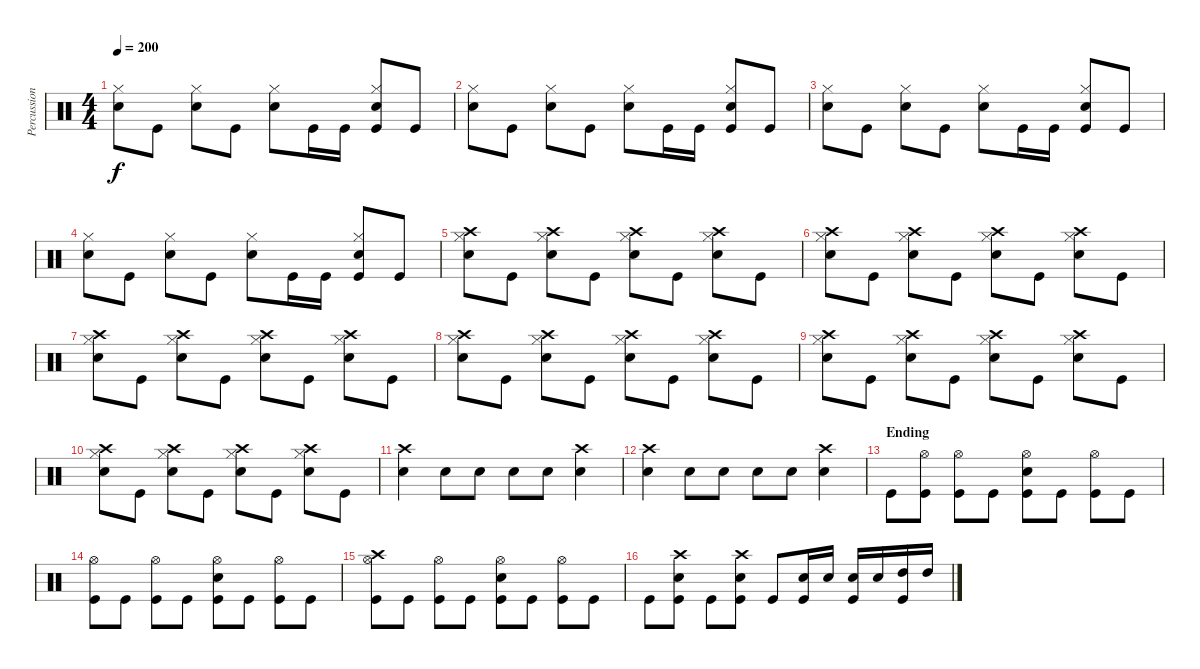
\track ("Percussion" "Percussion") {instrument percussion}
\staff {score}
\articulation defaults
\ts (4 4)
\tempo 200
\clef neutral
\ks c
("Snare (hit) 2" "Hi-Hat (closed)").8{dy f} "Kick (hit)".8 ("Snare (hit) 2" "Hi-Hat (closed)").8 "Kick (hit)".8 ("Snare (hit) 2" "Hi-Hat (closed)").8 "Kick (hit)".16 "Kick (hit)".16 ("Snare (hit) 2" "Hi-Hat (closed)" "Kick (hit)").8 "Kick (hit)".8 |
("Snare (hit) 2" "Hi-Hat (closed)").8 "Kick (hit)".8 ("Snare (hit) 2" "Hi-Hat (closed)").8 "Kick (hit)".8 ("Snare (hit) 2" "Hi-Hat (closed)").8 "Kick (hit)".16 "Kick (hit)".16 ("Snare (hit) 2" "Hi-Hat (closed)" "Kick (hit)").8 "Kick (hit)".8 |
("Snare (hit) 2" "Hi-Hat (closed)").8 "Kick (hit)".8 ("Snare (hit) 2" "Hi-Hat (closed)").8 "Kick (hit)".8 ("Snare (hit) 2" "Hi-Hat (closed)").8 "Kick (hit)".16 "Kick (hit)".16 ("Snare (hit) 2" "Hi-Hat (closed)" "Kick (hit)").8 "Kick (hit)".8 |
("Snare (hit) 2" "Hi-Hat (closed)").8 "Kick (hit)".8 ("Snare (hit) 2" "Hi-Hat (closed)").8 "Kick (hit)".8 ("Snare (hit) 2" "Hi-Hat (closed)").8 "Kick (hit)".16 "Kick (hit)".16 ("Snare (hit) 2" "Hi-Hat (closed)" "Kick (hit)").8 "Kick (hit)".8 |
("Crash high (hit)" "Snare (hit) 2" "Hi-Hat (closed)").8 "Kick (hit)".8 ("Crash high (hit)" "Snare (hit) 2" "Hi-Hat (closed)").8 "Kick (hit)".8 ("Crash high (hit)" "Snare (hit) 2" "Hi-Hat (closed)").8 "Kick (hit)".8 ("Crash high (hit)" "Snare (hit) 2" "Hi-Hat (closed)").8 "Kick (hit)".8 |
("Crash high (hit)" "Snare (hit) 2" "Hi-Hat (closed)").8 "Kick (hit)".8 ("Crash high (hit)" "Snare (hit) 2" "Hi-Hat (closed)").8 "Kick (hit)".8 ("Crash high (hit)" "Snare (hit) 2" "Hi-Hat (closed)").8 "Kick (hit)".8 ("Crash high (hit)" "Snare (hit) 2" "Hi-Hat (closed)").8 "Kick (hit)".8 |
("Crash high (hit)" "Snare (hit) 2" "Hi-Hat (closed)").8 "Kick (hit)".8 ("Crash high (hit)" "Snare (hit) 2" "Hi-Hat (closed)").8 "Kick (hit)".8 ("Crash high (hit)" "Snare (hit) 2" "Hi-Hat (closed)").8 "Kick (hit)".8 ("Crash high (hit)" "Snare (hit) 2" "Hi-Hat (closed)").8 "Kick (hit)".8 |
("Crash high (hit)" "Snare (hit) 2" "Hi-Hat (closed)").8 "Kick (hit)".8 ("Crash high (hit)" "Snare (hit) 2" "Hi-Hat (closed)").8 "Kick (hit)".8 ("Crash high (hit)" "Snare (hit) 2" "Hi-Hat (closed)").8 "Kick (hit)".8 ("Crash high (hit)" "Snare (hit) 2" "Hi-Hat (closed)").8 "Kick (hit)".8 |
("Crash high (hit)" "Snare (hit) 2" "Hi-Hat (closed)").8 "Kick (hit)".8 ("Crash high (hit)" "Snare (hit) 2" "Hi-Hat (closed)").8 "Kick (hit)".8 ("Crash high (hit)" "Snare (hit) 2" "Hi-Hat (closed)").8 "Kick (hit)".8 ("Crash high (hit)" "Snare (hit) 2" "Hi-Hat (closed)").8 "Kick (hit)".8 |
("Crash high (hit)" "Snare (hit) 2" "Hi-Hat (closed)").8 "Kick (hit)".8 ("Crash high (hit)" "Snare (hit) 2" "Hi-Hat (closed)").8 "Kick (hit)".8 ("Crash high (hit)" "Snare (hit) 2" "Hi-Hat (closed)").8 "Kick (hit)".8 ("Crash high (hit)" "Snare (hit) 2" "Hi-Hat (closed)").8 "Kick (hit)".8 |
("Crash high (hit)" "Snare (hit) 2").4 "Snare (hit) 2".8 "Snare (hit) 2".8 "Snare (hit) 2".8 "Snare (hit) 2".8 ("Crash high (hit)" "Snare (hit) 2").4 |
("Crash high (hit)" "Snare (hit) 2").4 "Snare (hit) 2".8 "Snare (hit) 2".8 "Snare (hit) 2".8 "Snare (hit) 2".8 ("Crash high (hit)" "Snare (hit) 2").4 |
\section ("" "Ending")
"Kick (hit)".8 ("Hi-Hat (open)" "Kick (hit)").8 ("Hi-Hat (open)" "Kick (hit)").8 "Kick (hit)".8 ("Snare (hit) 2" "Hi-Hat (open)" "Kick (hit)").8 "Kick (hit)".8 ("Hi-Hat (open)" "Kick (hit)").8 "Kick (hit)".8 |
("Hi-Hat (open)" "Kick (hit)").8 "Kick (hit)".8 ("Hi-Hat (open)" "Kick (hit)").8 "Kick (hit)".8 ("Snare (hit) 2" "Hi-Hat (open)" "Kick (hit)").8 "Kick (hit)".8 ("Hi-Hat (open)" "Kick (hit)").8 "Kick (hit)".8 |
("Crash high (hit)" "Hi-Hat (open)" "Kick (hit)").8 "Kick (hit)".8 ("Hi-Hat (open)" "Kick (hit)").8 "Kick (hit)".8 ("Snare (hit) 2" "Hi-Hat (open)" "Kick (hit)").8 "Kick (hit)".8 ("Hi-Hat (open)" "Kick (hit)").8 "Kick (hit)".8 |
"Kick (hit)".8 ("Crash high (hit)" "Snare (hit) 2" "Kick (hit)").8 "Kick (hit)".8 ("Crash high (hit)" "Snare (hit) 2" "Kick (hit)").8 "Kick (hit)".8 ("Snare (hit) 2" "Kick (hit)").16 "Snare (hit) 2".16 ("Snare (hit) 2" "Kick (hit)").16 "Snare (hit) 2".16 ("High Tom (hit)" "Kick (hit)").16 "High Tom (hit)".16
